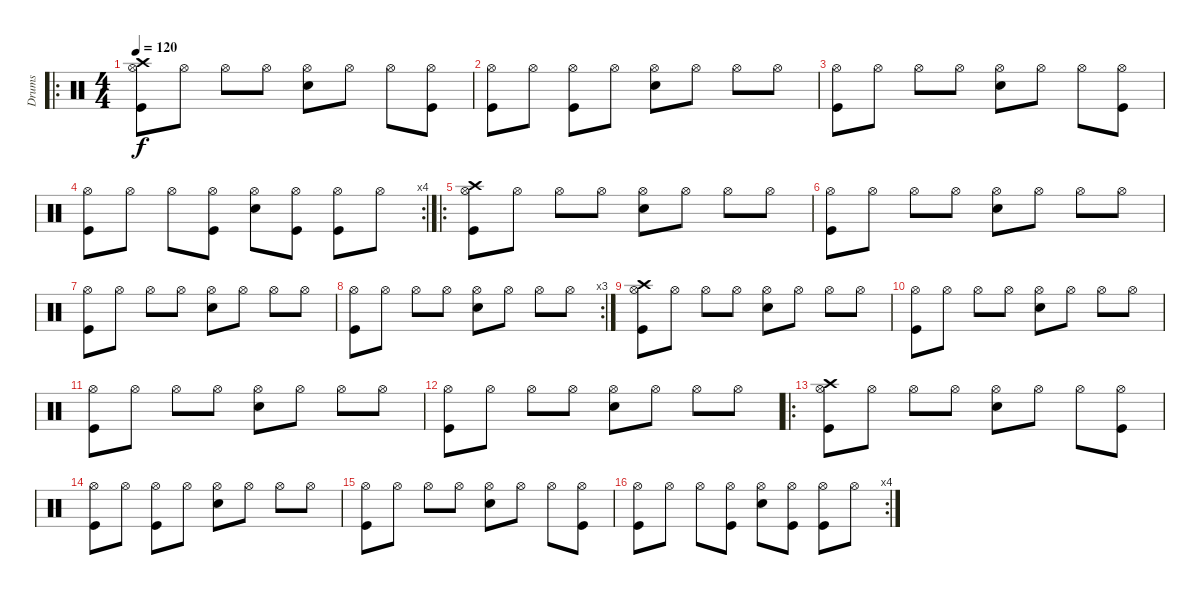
\track ("Drums" "Drums") {instrument percussion}
\staff {score}
\articulation defaults
\ro
\ts (4 4)
\tempo 120
\clef neutral
\ks c
("Hi-Hat (open)" "Crash high (hit)" "Kick (hit)").8{dy f} "Hi-Hat (open)".8 "Hi-Hat (open)".8 "Hi-Hat (open)".8 ("Hi-Hat (open)" "Electric Snare (hit)").8 "Hi-Hat (open)".8 "Hi-Hat (open)".8 ("Hi-Hat (open)" "Kick (hit)").8 |
("Hi-Hat (open)" "Kick (hit)").8 "Hi-Hat (open)".8 ("Hi-Hat (open)" "Kick (hit)").8 "Hi-Hat (open)".8 ("Hi-Hat (open)" "Electric Snare (hit)").8 "Hi-Hat (open)".8 "Hi-Hat (open)".8 "Hi-Hat (open)".8 |
("Hi-Hat (open)" "Kick (hit)").8 "Hi-Hat (open)".8 "Hi-Hat (open)".8 "Hi-Hat (open)".8 ("Hi-Hat (open)" "Electric Snare (hit)").8 "Hi-Hat (open)".8 "Hi-Hat (open)".8 ("Hi-Hat (open)" "Kick (hit)").8 |
\rc 4
("Hi-Hat (open)" "Kick (hit)").8 "Hi-Hat (open)".8 "Hi-Hat (open)".8 ("Hi-Hat (open)" "Kick (hit)").8 ("Hi-Hat (open)" "Electric Snare (hit)").8 ("Hi-Hat (open)" "Kick (hit)").8 ("Hi-Hat (open)" "Kick (hit)").8 "Hi-Hat (open)".8 |
\ro
("Hi-Hat (open)" "Crash high (hit)" "Kick (hit)").8 "Hi-Hat (open)".8 "Hi-Hat (open)".8 "Hi-Hat (open)".8 ("Hi-Hat (open)" "Electric Snare (hit)").8 "Hi-Hat (open)".8 "Hi-Hat (open)".8 "Hi-Hat (open)".8 |
("Hi-Hat (open)" "Kick (hit)").8 "Hi-Hat (open)".8 "Hi-Hat (open)".8 "Hi-Hat (open)".8 ("Hi-Hat (open)" "Electric Snare (hit)").8 "Hi-Hat (open)".8 "Hi-Hat (open)".8 "Hi-Hat (open)".8 |
("Hi-Hat (open)" "Kick (hit)").8 "Hi-Hat (open)".8 "Hi-Hat (open)".8 "Hi-Hat (open)".8 ("Hi-Hat (open)" "Electric Snare (hit)").8 "Hi-Hat (open)".8 "Hi-Hat (open)".8 "Hi-Hat (open)".8 |
\rc 3
("Hi-Hat (open)" "Kick (hit)").8 "Hi-Hat (open)".8 "Hi-Hat (open)".8 "Hi-Hat (open)".8 ("Hi-Hat (open)" "Electric Snare (hit)").8 "Hi-Hat (open)".8 "Hi-Hat (open)".8 "Hi-Hat (open)".8 |
("Hi-Hat (open)" "Crash high (hit)" "Kick (hit)").8 "Hi-Hat (open)".8 "Hi-Hat (open)".8 "Hi-Hat (open)".8 ("Hi-Hat (open)" "Electric Snare (hit)").8 "Hi-Hat (open)".8 "Hi-Hat (open)".8 "Hi-Hat (open)".8 |
("Hi-Hat (open)" "Kick (hit)").8 "Hi-Hat (open)".8 "Hi-Hat (open)".8 "Hi-Hat (open)".8 ("Hi-Hat (open)" "Electric Snare (hit)").8 "Hi-Hat (open)".8 "Hi-Hat (open)".8 "Hi-Hat (open)".8 |
("Hi-Hat (open)" "Kick (hit)").8 "Hi-Hat (open)".8 "Hi-Hat (open)".8 "Hi-Hat (open)".8 ("Hi-Hat (open)" "Electric Snare (hit)").8 "Hi-Hat (open)".8 "Hi-Hat (open)".8 "Hi-Hat (open)".8 |
("Hi-Hat (open)" "Kick (hit)").8 "Hi-Hat (open)".8 "Hi-Hat (open)".8 "Hi-Hat (open)".8 ("Hi-Hat (open)" "Electric Snare (hit)").8 "Hi-Hat (open)".8 "Hi-Hat (open)".8 "Hi-Hat (open)".8 |
\ro
("Hi-Hat (open)" "Crash high (hit)" "Kick (hit)").8 "Hi-Hat (open)".8 "Hi-Hat (open)".8 "Hi-Hat (open)".8 ("Hi-Hat (open)" "Electric Snare (hit)").8 "Hi-Hat (open)".8 "Hi-Hat (open)".8 ("Hi-Hat (open)" "Kick (hit)").8 |
("Hi-Hat (open)" "Kick (hit)").8 "Hi-Hat (open)".8 ("Hi-Hat (open)" "Kick (hit)").8 "Hi-Hat (open)".8 ("Hi-Hat (open)" "Electric Snare (hit)").8 "Hi-Hat (open)".8 "Hi-Hat (open)".8 "Hi-Hat (open)".8 |
("Hi-Hat (open)" "Kick (hit)").8 "Hi-Hat (open)".8 "Hi-Hat (open)".8 "Hi-Hat (open)".8 ("Hi-Hat (open)" "Electric Snare (hit)").8 "Hi-Hat (open)".8 "Hi-Hat (open)".8 ("Hi-Hat (open)" "Kick (hit)").8 |
\rc 4
("Hi-Hat (open)" "Kick (hit)").8 "Hi-Hat (open)".8 "Hi-Hat (open)".8 ("Hi-Hat (open)" "Kick (hit)").8 ("Hi-Hat (open)" "Electric Snare (hit)").8 ("Hi-Hat (open)" "Kick (hit)").8 ("Hi-Hat (open)" "Kick (hit)").8 "Hi-Hat (open)".8
